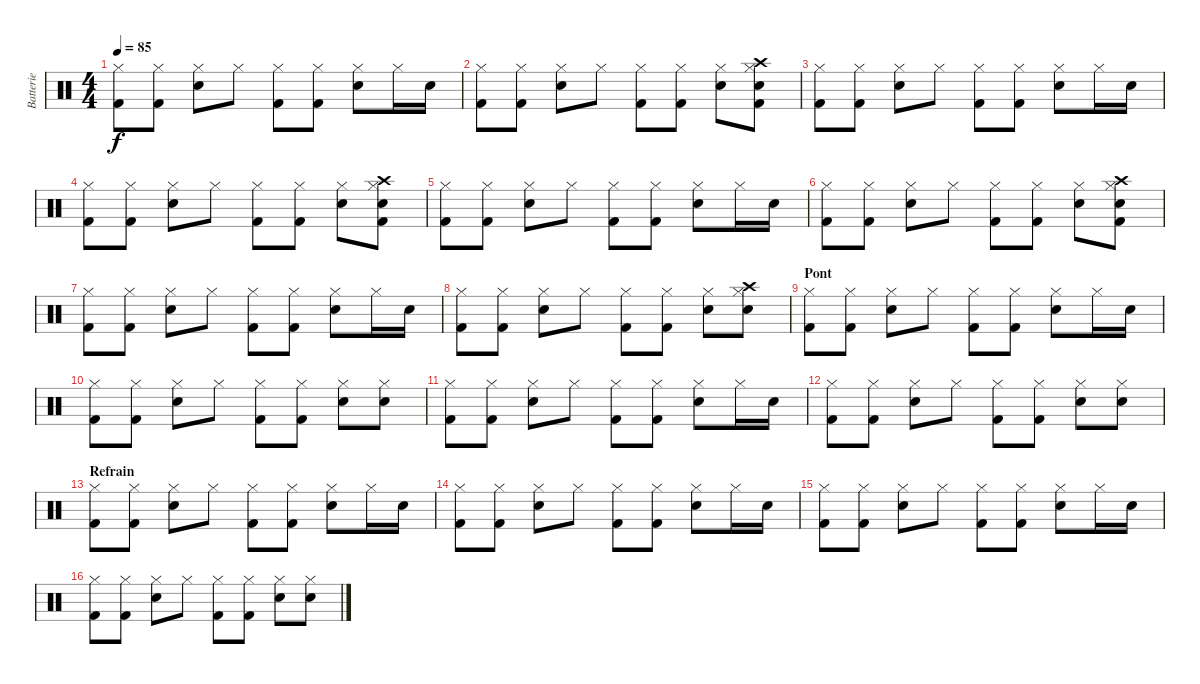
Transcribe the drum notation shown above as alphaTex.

\track ("Batterie" "Batterie") {instrument percussion}
\staff {score}
\articulation defaults
\ts (4 4)
\tempo 85
\clef neutral
\ks c
("Hi-Hat (closed)" "Kick (hit) 2").8{dy f} ("Hi-Hat (closed)" "Kick (hit) 2").8 ("Hi-Hat (closed)" "Snare (hit) 2").8 "Hi-Hat (closed)".8 ("Hi-Hat (closed)" "Kick (hit) 2").8 ("Hi-Hat (closed)" "Kick (hit) 2").8 ("Hi-Hat (closed)" "Snare (hit) 2").8 "Hi-Hat (closed)".16 "Snare (hit) 2".16 |
("Hi-Hat (closed)" "Kick (hit) 2").8 ("Hi-Hat (closed)" "Kick (hit) 2").8 ("Hi-Hat (closed)" "Snare (hit) 2").8 "Hi-Hat (closed)".8 ("Hi-Hat (closed)" "Kick (hit) 2").8 ("Hi-Hat (closed)" "Kick (hit) 2").8 ("Hi-Hat (closed)" "Snare (hit) 2").8 ("Crash high (hit)" "Hi-Hat (closed)" "Snare (hit) 2" "Kick (hit) 2").8 |
("Hi-Hat (closed)" "Kick (hit) 2").8 ("Hi-Hat (closed)" "Kick (hit) 2").8 ("Hi-Hat (closed)" "Snare (hit) 2").8 "Hi-Hat (closed)".8 ("Hi-Hat (closed)" "Kick (hit) 2").8 ("Hi-Hat (closed)" "Kick (hit) 2").8 ("Hi-Hat (closed)" "Snare (hit) 2").8 "Hi-Hat (closed)".16 "Snare (hit) 2".16 |
("Hi-Hat (closed)" "Kick (hit) 2").8 ("Hi-Hat (closed)" "Kick (hit) 2").8 ("Hi-Hat (closed)" "Snare (hit) 2").8 "Hi-Hat (closed)".8 ("Hi-Hat (closed)" "Kick (hit) 2").8 ("Hi-Hat (closed)" "Kick (hit) 2").8 ("Hi-Hat (closed)" "Snare (hit) 2").8 ("Crash high (hit)" "Hi-Hat (closed)" "Snare (hit) 2" "Kick (hit) 2").8 |
("Hi-Hat (closed)" "Kick (hit) 2").8 ("Hi-Hat (closed)" "Kick (hit) 2").8 ("Hi-Hat (closed)" "Snare (hit) 2").8 "Hi-Hat (closed)".8 ("Hi-Hat (closed)" "Kick (hit) 2").8 ("Hi-Hat (closed)" "Kick (hit) 2").8 ("Hi-Hat (closed)" "Snare (hit) 2").8 "Hi-Hat (closed)".16 "Snare (hit) 2".16 |
("Hi-Hat (closed)" "Kick (hit) 2").8 ("Hi-Hat (closed)" "Kick (hit) 2").8 ("Hi-Hat (closed)" "Snare (hit) 2").8 "Hi-Hat (closed)".8 ("Hi-Hat (closed)" "Kick (hit) 2").8 ("Hi-Hat (closed)" "Kick (hit) 2").8 ("Hi-Hat (closed)" "Snare (hit) 2").8 ("Crash high (hit)" "Hi-Hat (closed)" "Snare (hit) 2" "Kick (hit) 2").8 |
("Hi-Hat (closed)" "Kick (hit) 2").8 ("Hi-Hat (closed)" "Kick (hit) 2").8 ("Hi-Hat (closed)" "Snare (hit) 2").8 "Hi-Hat (closed)".8 ("Hi-Hat (closed)" "Kick (hit) 2").8 ("Hi-Hat (closed)" "Kick (hit) 2").8 ("Hi-Hat (closed)" "Snare (hit) 2").8 "Hi-Hat (closed)".16 "Snare (hit) 2".16 |
("Hi-Hat (closed)" "Kick (hit) 2").8 ("Hi-Hat (closed)" "Kick (hit) 2").8 ("Hi-Hat (closed)" "Snare (hit) 2").8 "Hi-Hat (closed)".8 ("Hi-Hat (closed)" "Kick (hit) 2").8 ("Hi-Hat (closed)" "Kick (hit) 2").8 ("Hi-Hat (closed)" "Snare (hit) 2").8 ("Crash high (hit)" "Hi-Hat (closed)" "Snare (hit) 2").8 |
\section ("" "Pont")
("Hi-Hat (closed)" "Kick (hit) 2").8 ("Hi-Hat (closed)" "Kick (hit) 2").8 ("Hi-Hat (closed)" "Snare (hit) 2").8 "Hi-Hat (closed)".8 ("Hi-Hat (closed)" "Kick (hit) 2").8 ("Hi-Hat (closed)" "Kick (hit) 2").8 ("Hi-Hat (closed)" "Snare (hit) 2").8 "Hi-Hat (closed)".16 "Snare (hit) 2".16 |
("Hi-Hat (closed)" "Kick (hit) 2").8 ("Hi-Hat (closed)" "Kick (hit) 2").8 ("Hi-Hat (closed)" "Snare (hit) 2").8 "Hi-Hat (closed)".8 ("Hi-Hat (closed)" "Kick (hit) 2").8 ("Hi-Hat (closed)" "Kick (hit) 2").8 ("Hi-Hat (closed)" "Snare (hit) 2").8 ("Hi-Hat (closed)" "Snare (hit) 2").8 |
("Hi-Hat (closed)" "Kick (hit) 2").8 ("Hi-Hat (closed)" "Kick (hit) 2").8 ("Hi-Hat (closed)" "Snare (hit) 2").8 "Hi-Hat (closed)".8 ("Hi-Hat (closed)" "Kick (hit) 2").8 ("Hi-Hat (closed)" "Kick (hit) 2").8 ("Hi-Hat (closed)" "Snare (hit) 2").8 "Hi-Hat (closed)".16 "Snare (hit) 2".16 |
("Hi-Hat (closed)" "Kick (hit) 2").8 ("Hi-Hat (closed)" "Kick (hit) 2").8 ("Hi-Hat (closed)" "Snare (hit) 2").8 "Hi-Hat (closed)".8 ("Hi-Hat (closed)" "Kick (hit) 2").8 ("Hi-Hat (closed)" "Kick (hit) 2").8 ("Hi-Hat (closed)" "Snare (hit) 2").8 ("Hi-Hat (closed)" "Snare (hit) 2").8 |
\section ("" "Refrain")
("Hi-Hat (closed)" "Kick (hit) 2").8 ("Hi-Hat (closed)" "Kick (hit) 2").8 ("Hi-Hat (closed)" "Snare (hit) 2").8 "Hi-Hat (closed)".8 ("Hi-Hat (closed)" "Kick (hit) 2").8 ("Hi-Hat (closed)" "Kick (hit) 2").8 ("Hi-Hat (closed)" "Snare (hit) 2").8 "Hi-Hat (closed)".16 "Snare (hit) 2".16 |
("Hi-Hat (closed)" "Kick (hit) 2").8 ("Hi-Hat (closed)" "Kick (hit) 2").8 ("Hi-Hat (closed)" "Snare (hit) 2").8 "Hi-Hat (closed)".8 ("Hi-Hat (closed)" "Kick (hit) 2").8 ("Hi-Hat (closed)" "Kick (hit) 2").8 ("Hi-Hat (closed)" "Snare (hit) 2").8 "Hi-Hat (closed)".16 "Snare (hit) 2".16 |
("Hi-Hat (closed)" "Kick (hit) 2").8 ("Hi-Hat (closed)" "Kick (hit) 2").8 ("Hi-Hat (closed)" "Snare (hit) 2").8 "Hi-Hat (closed)".8 ("Hi-Hat (closed)" "Kick (hit) 2").8 ("Hi-Hat (closed)" "Kick (hit) 2").8 ("Hi-Hat (closed)" "Snare (hit) 2").8 "Hi-Hat (closed)".16 "Snare (hit) 2".16 |
("Hi-Hat (closed)" "Kick (hit) 2").8 ("Hi-Hat (closed)" "Kick (hit) 2").8 ("Hi-Hat (closed)" "Snare (hit) 2").8 "Hi-Hat (closed)".8 ("Hi-Hat (closed)" "Kick (hit) 2").8 ("Hi-Hat (closed)" "Kick (hit) 2").8 ("Hi-Hat (closed)" "Snare (hit) 2").8 ("Hi-Hat (closed)" "Snare (hit) 2").8
